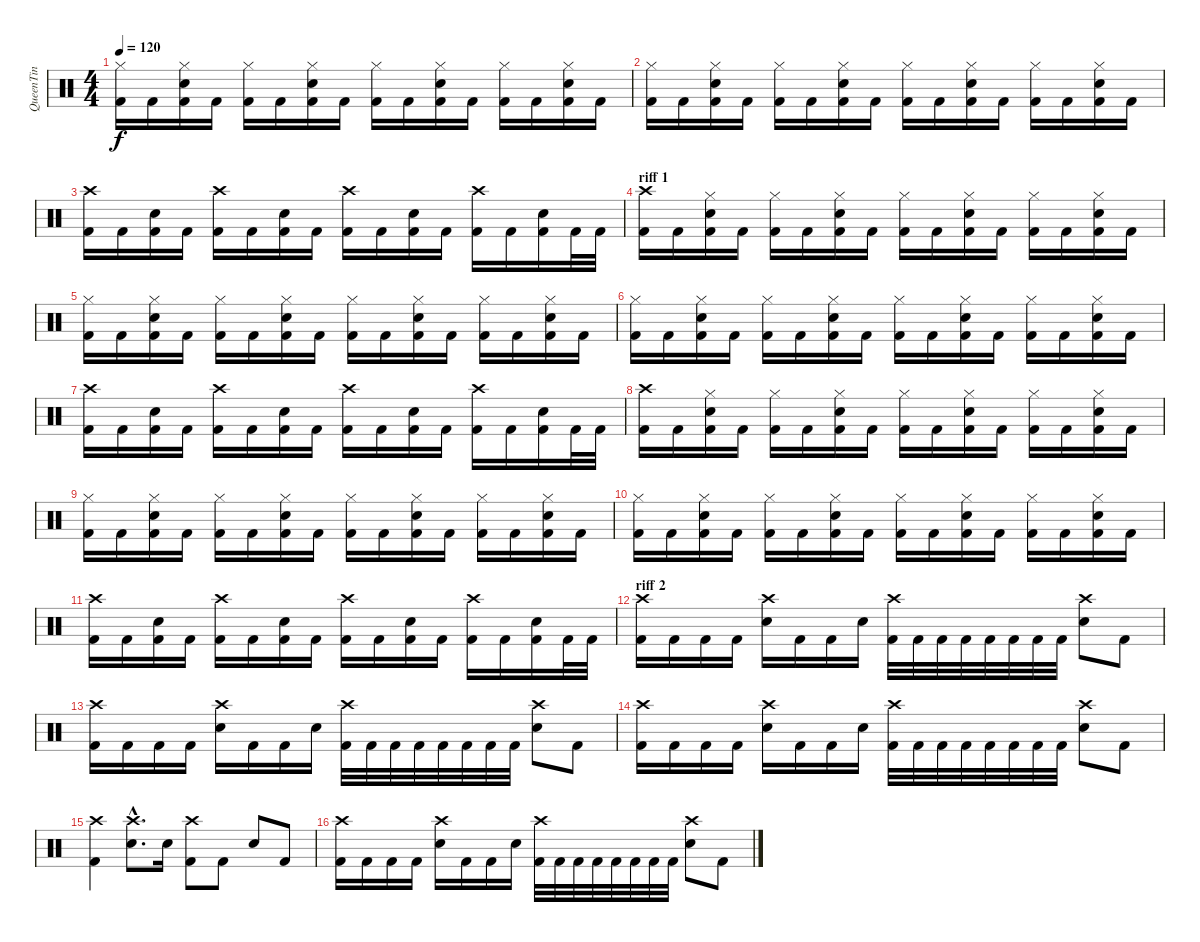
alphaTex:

\track ("QueenTin" "QueenTin") {instrument percussion}
\staff {score}
\articulation defaults
\ts (4 4)
\tempo 120
\clef neutral
\ks c
("Hi-Hat (closed)" "Kick (hit) 2").16{dy f} "Kick (hit) 2".16 ("Hi-Hat (closed)" "Snare (hit) 2" "Kick (hit) 2").16 "Kick (hit) 2".16 ("Hi-Hat (closed)" "Kick (hit) 2").16 "Kick (hit) 2".16 ("Hi-Hat (closed)" "Snare (hit) 2" "Kick (hit) 2").16 "Kick (hit) 2".16 ("Hi-Hat (closed)" "Kick (hit) 2").16 "Kick (hit) 2".16 ("Hi-Hat (closed)" "Snare (hit) 2" "Kick (hit) 2").16 "Kick (hit) 2".16 ("Hi-Hat (closed)" "Kick (hit) 2").16 "Kick (hit) 2".16 ("Hi-Hat (closed)" "Snare (hit) 2" "Kick (hit) 2").16 "Kick (hit) 2".16 |
("Hi-Hat (closed)" "Kick (hit) 2").16 "Kick (hit) 2".16 ("Hi-Hat (closed)" "Snare (hit) 2" "Kick (hit) 2").16 "Kick (hit) 2".16 ("Hi-Hat (closed)" "Kick (hit) 2").16 "Kick (hit) 2".16 ("Hi-Hat (closed)" "Snare (hit) 2" "Kick (hit) 2").16 "Kick (hit) 2".16 ("Hi-Hat (closed)" "Kick (hit) 2").16 "Kick (hit) 2".16 ("Hi-Hat (closed)" "Snare (hit) 2" "Kick (hit) 2").16 "Kick (hit) 2".16 ("Hi-Hat (closed)" "Kick (hit) 2").16 "Kick (hit) 2".16 ("Hi-Hat (closed)" "Snare (hit) 2" "Kick (hit) 2").16 "Kick (hit) 2".16 |
("Crash high (hit)" "Kick (hit) 2").16 "Kick (hit) 2".16 ("Snare (hit) 2" "Kick (hit) 2").16 "Kick (hit) 2".16 ("Crash high (hit)" "Kick (hit) 2").16 "Kick (hit) 2".16 ("Snare (hit) 2" "Kick (hit) 2").16 "Kick (hit) 2".16 ("Crash high (hit)" "Kick (hit) 2").16 "Kick (hit) 2".16 ("Snare (hit) 2" "Kick (hit) 2").16 "Kick (hit) 2".16 ("Crash high (hit)" "Kick (hit) 2").16 "Kick (hit) 2".16 ("Snare (hit) 2" "Kick (hit) 2").16 "Kick (hit) 2".32 "Kick (hit) 2".32 |
\section ("" "riff 1")
("Crash high (hit)" "Kick (hit) 2").16 "Kick (hit) 2".16 ("Hi-Hat (closed)" "Snare (hit) 2" "Kick (hit) 2").16 "Kick (hit) 2".16 ("Hi-Hat (closed)" "Kick (hit) 2").16 "Kick (hit) 2".16 ("Hi-Hat (closed)" "Snare (hit) 2" "Kick (hit) 2").16 "Kick (hit) 2".16 ("Hi-Hat (closed)" "Kick (hit) 2").16 "Kick (hit) 2".16 ("Hi-Hat (closed)" "Snare (hit) 2" "Kick (hit) 2").16 "Kick (hit) 2".16 ("Hi-Hat (closed)" "Kick (hit) 2").16 "Kick (hit) 2".16 ("Hi-Hat (closed)" "Snare (hit) 2" "Kick (hit) 2").16 "Kick (hit) 2".16 |
("Hi-Hat (closed)" "Kick (hit) 2").16 "Kick (hit) 2".16 ("Hi-Hat (closed)" "Snare (hit) 2" "Kick (hit) 2").16 "Kick (hit) 2".16 ("Hi-Hat (closed)" "Kick (hit) 2").16 "Kick (hit) 2".16 ("Hi-Hat (closed)" "Snare (hit) 2" "Kick (hit) 2").16 "Kick (hit) 2".16 ("Hi-Hat (closed)" "Kick (hit) 2").16 "Kick (hit) 2".16 ("Hi-Hat (closed)" "Snare (hit) 2" "Kick (hit) 2").16 "Kick (hit) 2".16 ("Hi-Hat (closed)" "Kick (hit) 2").16 "Kick (hit) 2".16 ("Hi-Hat (closed)" "Snare (hit) 2" "Kick (hit) 2").16 "Kick (hit) 2".16 |
("Hi-Hat (closed)" "Kick (hit) 2").16 "Kick (hit) 2".16 ("Hi-Hat (closed)" "Snare (hit) 2" "Kick (hit) 2").16 "Kick (hit) 2".16 ("Hi-Hat (closed)" "Kick (hit) 2").16 "Kick (hit) 2".16 ("Hi-Hat (closed)" "Snare (hit) 2" "Kick (hit) 2").16 "Kick (hit) 2".16 ("Hi-Hat (closed)" "Kick (hit) 2").16 "Kick (hit) 2".16 ("Hi-Hat (closed)" "Snare (hit) 2" "Kick (hit) 2").16 "Kick (hit) 2".16 ("Hi-Hat (closed)" "Kick (hit) 2").16 "Kick (hit) 2".16 ("Hi-Hat (closed)" "Snare (hit) 2" "Kick (hit) 2").16 "Kick (hit) 2".16 |
("Crash high (hit)" "Kick (hit) 2").16 "Kick (hit) 2".16 ("Snare (hit) 2" "Kick (hit) 2").16 "Kick (hit) 2".16 ("Crash high (hit)" "Kick (hit) 2").16 "Kick (hit) 2".16 ("Snare (hit) 2" "Kick (hit) 2").16 "Kick (hit) 2".16 ("Crash high (hit)" "Kick (hit) 2").16 "Kick (hit) 2".16 ("Snare (hit) 2" "Kick (hit) 2").16 "Kick (hit) 2".16 ("Crash high (hit)" "Kick (hit) 2").16 "Kick (hit) 2".16 ("Snare (hit) 2" "Kick (hit) 2").16 "Kick (hit) 2".32 "Kick (hit) 2".32 |
("Crash high (hit)" "Kick (hit) 2").16 "Kick (hit) 2".16 ("Hi-Hat (closed)" "Snare (hit) 2" "Kick (hit) 2").16 "Kick (hit) 2".16 ("Hi-Hat (closed)" "Kick (hit) 2").16 "Kick (hit) 2".16 ("Hi-Hat (closed)" "Snare (hit) 2" "Kick (hit) 2").16 "Kick (hit) 2".16 ("Hi-Hat (closed)" "Kick (hit) 2").16 "Kick (hit) 2".16 ("Hi-Hat (closed)" "Snare (hit) 2" "Kick (hit) 2").16 "Kick (hit) 2".16 ("Hi-Hat (closed)" "Kick (hit) 2").16 "Kick (hit) 2".16 ("Hi-Hat (closed)" "Snare (hit) 2" "Kick (hit) 2").16 "Kick (hit) 2".16 |
("Hi-Hat (closed)" "Kick (hit) 2").16 "Kick (hit) 2".16 ("Hi-Hat (closed)" "Snare (hit) 2" "Kick (hit) 2").16 "Kick (hit) 2".16 ("Hi-Hat (closed)" "Kick (hit) 2").16 "Kick (hit) 2".16 ("Hi-Hat (closed)" "Snare (hit) 2" "Kick (hit) 2").16 "Kick (hit) 2".16 ("Hi-Hat (closed)" "Kick (hit) 2").16 "Kick (hit) 2".16 ("Hi-Hat (closed)" "Snare (hit) 2" "Kick (hit) 2").16 "Kick (hit) 2".16 ("Hi-Hat (closed)" "Kick (hit) 2").16 "Kick (hit) 2".16 ("Hi-Hat (closed)" "Snare (hit) 2" "Kick (hit) 2").16 "Kick (hit) 2".16 |
("Hi-Hat (closed)" "Kick (hit) 2").16 "Kick (hit) 2".16 ("Hi-Hat (closed)" "Snare (hit) 2" "Kick (hit) 2").16 "Kick (hit) 2".16 ("Hi-Hat (closed)" "Kick (hit) 2").16 "Kick (hit) 2".16 ("Hi-Hat (closed)" "Snare (hit) 2" "Kick (hit) 2").16 "Kick (hit) 2".16 ("Hi-Hat (closed)" "Kick (hit) 2").16 "Kick (hit) 2".16 ("Hi-Hat (closed)" "Snare (hit) 2" "Kick (hit) 2").16 "Kick (hit) 2".16 ("Hi-Hat (closed)" "Kick (hit) 2").16 "Kick (hit) 2".16 ("Hi-Hat (closed)" "Snare (hit) 2" "Kick (hit) 2").16 "Kick (hit) 2".16 |
("Crash high (hit)" "Kick (hit) 2").16 "Kick (hit) 2".16 ("Snare (hit) 2" "Kick (hit) 2").16 "Kick (hit) 2".16 ("Crash high (hit)" "Kick (hit) 2").16 "Kick (hit) 2".16 ("Snare (hit) 2" "Kick (hit) 2").16 "Kick (hit) 2".16 ("Crash high (hit)" "Kick (hit) 2").16 "Kick (hit) 2".16 ("Snare (hit) 2" "Kick (hit) 2").16 "Kick (hit) 2".16 ("Crash high (hit)" "Kick (hit) 2").16 "Kick (hit) 2".16 ("Snare (hit) 2" "Kick (hit) 2").16 "Kick (hit) 2".32 "Kick (hit) 2".32 |
\section ("" "riff 2")
("Crash high (hit)" "Kick (hit) 2").16 "Kick (hit) 2".16 "Kick (hit) 2".16 "Kick (hit) 2".16 ("Crash high (hit)" "Snare (hit) 2").16 "Kick (hit) 2".16 "Kick (hit) 2".16 "Snare (hit) 2".16 ("Crash high (hit)" "Kick (hit) 2").32 "Kick (hit) 2".32 "Kick (hit) 2".32 "Kick (hit) 2".32 "Kick (hit) 2".32 "Kick (hit) 2".32 "Kick (hit) 2".32 "Kick (hit) 2".32 ("Crash high (hit)" "Snare (hit) 2").8 "Kick (hit) 2".8 |
("Crash high (hit)" "Kick (hit) 2").16 "Kick (hit) 2".16 "Kick (hit) 2".16 "Kick (hit) 2".16 ("Crash high (hit)" "Snare (hit) 2").16 "Kick (hit) 2".16 "Kick (hit) 2".16 "Snare (hit) 2".16 ("Crash high (hit)" "Kick (hit) 2").32 "Kick (hit) 2".32 "Kick (hit) 2".32 "Kick (hit) 2".32 "Kick (hit) 2".32 "Kick (hit) 2".32 "Kick (hit) 2".32 "Kick (hit) 2".32 ("Crash high (hit)" "Snare (hit) 2").8 "Kick (hit) 2".8 |
("Crash high (hit)" "Kick (hit) 2").16 "Kick (hit) 2".16 "Kick (hit) 2".16 "Kick (hit) 2".16 ("Crash high (hit)" "Snare (hit) 2").16 "Kick (hit) 2".16 "Kick (hit) 2".16 "Snare (hit) 2".16 ("Crash high (hit)" "Kick (hit) 2").32 "Kick (hit) 2".32 "Kick (hit) 2".32 "Kick (hit) 2".32 "Kick (hit) 2".32 "Kick (hit) 2".32 "Kick (hit) 2".32 "Kick (hit) 2".32 ("Crash high (hit)" "Snare (hit) 2").8 "Kick (hit) 2".8 |
("Crash high (hit)" "Kick (hit) 2").4 ("Crash high (hit)"{hac} "Snare (hit) 2"{hac}).8{d} "Snare (hit) 2".16 ("Crash high (hit)" "Kick (hit) 2").8 "Kick (hit) 2".8 "Snare (hit) 2".8 "Kick (hit) 2".8 |
("Crash high (hit)" "Kick (hit) 2").16 "Kick (hit) 2".16 "Kick (hit) 2".16 "Kick (hit) 2".16 ("Crash high (hit)" "Snare (hit) 2").16 "Kick (hit) 2".16 "Kick (hit) 2".16 "Snare (hit) 2".16 ("Crash high (hit)" "Kick (hit) 2").32 "Kick (hit) 2".32 "Kick (hit) 2".32 "Kick (hit) 2".32 "Kick (hit) 2".32 "Kick (hit) 2".32 "Kick (hit) 2".32 "Kick (hit) 2".32 ("Crash high (hit)" "Snare (hit) 2").8 "Kick (hit) 2".8
